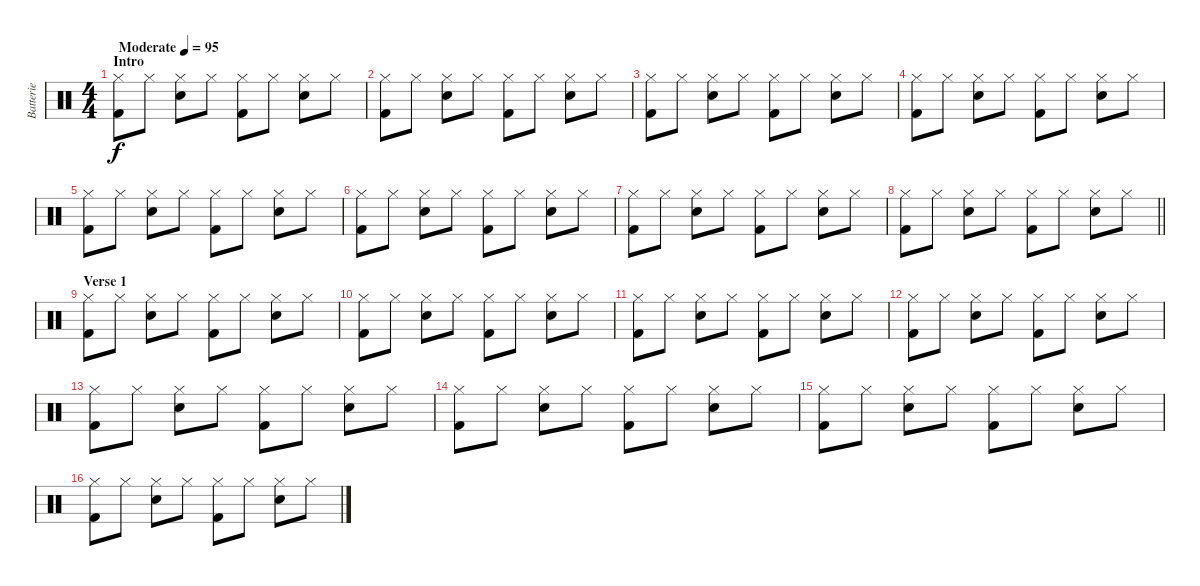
\track ("Batterie" "Batterie") {instrument percussion}
\staff {score}
\articulation defaults
\ts (4 4)
\section ("" "Intro")
\tempo (95 "Moderate")
\clef neutral
\ks c
("Hi-Hat (closed)" "Kick (hit) 2").8{dy f} "Hi-Hat (closed)".8 ("Hi-Hat (closed)" "Electric Snare (hit)").8 "Hi-Hat (closed)".8 ("Hi-Hat (closed)" "Kick (hit) 2").8 "Hi-Hat (closed)".8 ("Hi-Hat (closed)" "Electric Snare (hit)").8 "Hi-Hat (closed)".8 |
("Hi-Hat (closed)" "Kick (hit) 2").8 "Hi-Hat (closed)".8 ("Hi-Hat (closed)" "Electric Snare (hit)").8 "Hi-Hat (closed)".8 ("Hi-Hat (closed)" "Kick (hit) 2").8 "Hi-Hat (closed)".8 ("Hi-Hat (closed)" "Electric Snare (hit)").8 "Hi-Hat (closed)".8 |
("Hi-Hat (closed)" "Kick (hit) 2").8 "Hi-Hat (closed)".8 ("Hi-Hat (closed)" "Electric Snare (hit)").8 "Hi-Hat (closed)".8 ("Hi-Hat (closed)" "Kick (hit) 2").8 "Hi-Hat (closed)".8 ("Hi-Hat (closed)" "Electric Snare (hit)").8 "Hi-Hat (closed)".8 |
("Hi-Hat (closed)" "Kick (hit) 2").8 "Hi-Hat (closed)".8 ("Hi-Hat (closed)" "Electric Snare (hit)").8 "Hi-Hat (closed)".8 ("Hi-Hat (closed)" "Kick (hit) 2").8 "Hi-Hat (closed)".8 ("Hi-Hat (closed)" "Electric Snare (hit)").8 "Hi-Hat (closed)".8 |
("Hi-Hat (closed)" "Kick (hit) 2").8 "Hi-Hat (closed)".8 ("Hi-Hat (closed)" "Electric Snare (hit)").8 "Hi-Hat (closed)".8 ("Hi-Hat (closed)" "Kick (hit) 2").8 "Hi-Hat (closed)".8 ("Hi-Hat (closed)" "Electric Snare (hit)").8 "Hi-Hat (closed)".8 |
("Hi-Hat (closed)" "Kick (hit) 2").8 "Hi-Hat (closed)".8 ("Hi-Hat (closed)" "Electric Snare (hit)").8 "Hi-Hat (closed)".8 ("Hi-Hat (closed)" "Kick (hit) 2").8 "Hi-Hat (closed)".8 ("Hi-Hat (closed)" "Electric Snare (hit)").8 "Hi-Hat (closed)".8 |
("Hi-Hat (closed)" "Kick (hit) 2").8 "Hi-Hat (closed)".8 ("Hi-Hat (closed)" "Electric Snare (hit)").8 "Hi-Hat (closed)".8 ("Hi-Hat (closed)" "Kick (hit) 2").8 "Hi-Hat (closed)".8 ("Hi-Hat (closed)" "Electric Snare (hit)").8 "Hi-Hat (closed)".8 |
\barLineRight lightlight
("Hi-Hat (closed)" "Kick (hit) 2").8 "Hi-Hat (closed)".8 ("Hi-Hat (closed)" "Electric Snare (hit)").8 "Hi-Hat (closed)".8 ("Hi-Hat (closed)" "Kick (hit) 2").8 "Hi-Hat (closed)".8 ("Hi-Hat (closed)" "Electric Snare (hit)").8 "Hi-Hat (closed)".8 |
\section ("" "Verse 1")
("Hi-Hat (closed)" "Kick (hit) 2").8 "Hi-Hat (closed)".8 ("Hi-Hat (closed)" "Electric Snare (hit)").8 "Hi-Hat (closed)".8 ("Hi-Hat (closed)" "Kick (hit) 2").8 "Hi-Hat (closed)".8 ("Hi-Hat (closed)" "Electric Snare (hit)").8 "Hi-Hat (closed)".8 |
("Hi-Hat (closed)" "Kick (hit) 2").8 "Hi-Hat (closed)".8 ("Hi-Hat (closed)" "Electric Snare (hit)").8 "Hi-Hat (closed)".8 ("Hi-Hat (closed)" "Kick (hit) 2").8 "Hi-Hat (closed)".8 ("Hi-Hat (closed)" "Electric Snare (hit)").8 "Hi-Hat (closed)".8 |
("Hi-Hat (closed)" "Kick (hit) 2").8 "Hi-Hat (closed)".8 ("Hi-Hat (closed)" "Electric Snare (hit)").8 "Hi-Hat (closed)".8 ("Hi-Hat (closed)" "Kick (hit) 2").8 "Hi-Hat (closed)".8 ("Hi-Hat (closed)" "Electric Snare (hit)").8 "Hi-Hat (closed)".8 |
("Hi-Hat (closed)" "Kick (hit) 2").8 "Hi-Hat (closed)".8 ("Hi-Hat (closed)" "Electric Snare (hit)").8 "Hi-Hat (closed)".8 ("Hi-Hat (closed)" "Kick (hit) 2").8 "Hi-Hat (closed)".8 ("Hi-Hat (closed)" "Electric Snare (hit)").8 "Hi-Hat (closed)".8 |
("Hi-Hat (closed)" "Kick (hit) 2").8 "Hi-Hat (closed)".8 ("Hi-Hat (closed)" "Electric Snare (hit)").8 "Hi-Hat (closed)".8 ("Hi-Hat (closed)" "Kick (hit) 2").8 "Hi-Hat (closed)".8 ("Hi-Hat (closed)" "Electric Snare (hit)").8 "Hi-Hat (closed)".8 |
("Hi-Hat (closed)" "Kick (hit) 2").8 "Hi-Hat (closed)".8 ("Hi-Hat (closed)" "Electric Snare (hit)").8 "Hi-Hat (closed)".8 ("Hi-Hat (closed)" "Kick (hit) 2").8 "Hi-Hat (closed)".8 ("Hi-Hat (closed)" "Electric Snare (hit)").8 "Hi-Hat (closed)".8 |
("Hi-Hat (closed)" "Kick (hit) 2").8 "Hi-Hat (closed)".8 ("Hi-Hat (closed)" "Electric Snare (hit)").8 "Hi-Hat (closed)".8 ("Hi-Hat (closed)" "Kick (hit) 2").8 "Hi-Hat (closed)".8 ("Hi-Hat (closed)" "Electric Snare (hit)").8 "Hi-Hat (closed)".8 |
("Hi-Hat (closed)" "Kick (hit) 2").8 "Hi-Hat (closed)".8 ("Hi-Hat (closed)" "Electric Snare (hit)").8 "Hi-Hat (closed)".8 ("Hi-Hat (closed)" "Kick (hit) 2").8 "Hi-Hat (closed)".8 ("Hi-Hat (closed)" "Electric Snare (hit)").8 "Hi-Hat (closed)".8
